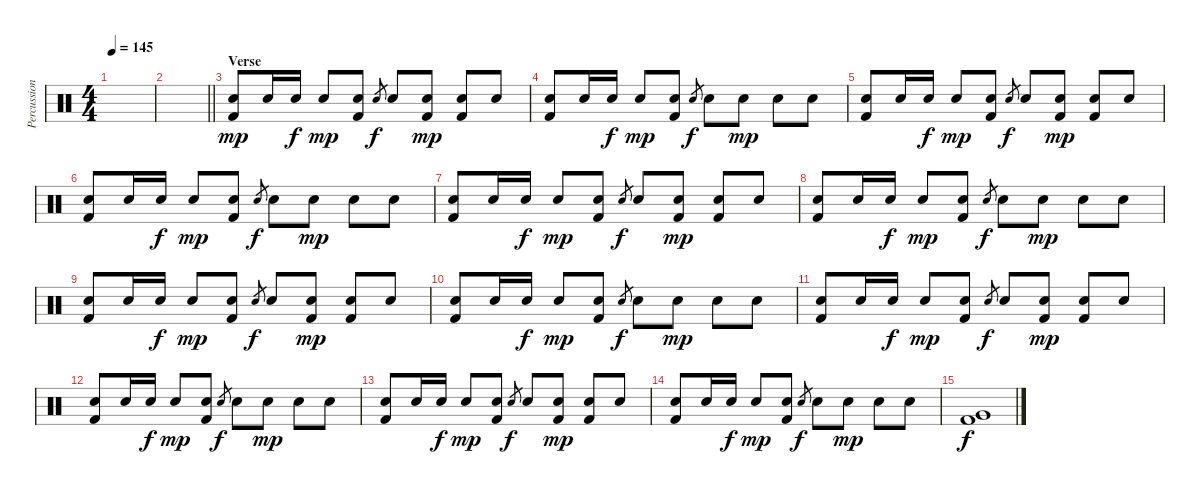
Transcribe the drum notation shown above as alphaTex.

\track ("Percussion" "Percussion") {instrument percussion}
\staff {score}
\articulation defaults
\ts (4 4)
\tempo 145
\clef neutral
\ks c
|
\barLineRight lightlight
|
\section ("" "Verse")
("Electric Snare (hit)" "Kick (hit) 2").8{dy mp} "Electric Snare (hit)".16 "Electric Snare (hit)".16{dy f} "Electric Snare (hit)".8{dy mp} ("Electric Snare (hit)" "Kick (hit) 2").8 "Electric Snare (hit)".8{gr dy f} "Electric Snare (hit)".8 ("Electric Snare (hit)" "Kick (hit) 2").8{dy mp} ("Electric Snare (hit)" "Kick (hit) 2").8 "Electric Snare (hit)".8 |
("Electric Snare (hit)" "Kick (hit) 2").8 "Electric Snare (hit)".16 "Electric Snare (hit)".16{dy f} "Electric Snare (hit)".8{dy mp} ("Electric Snare (hit)" "Kick (hit) 2").8 "Electric Snare (hit)".8{gr dy f} "Electric Snare (hit)".8 "Electric Snare (hit)".8{dy mp} "Electric Snare (hit)".8 "Electric Snare (hit)".8 |
("Electric Snare (hit)" "Kick (hit) 2").8 "Electric Snare (hit)".16 "Electric Snare (hit)".16{dy f} "Electric Snare (hit)".8{dy mp} ("Electric Snare (hit)" "Kick (hit) 2").8 "Electric Snare (hit)".8{gr dy f} "Electric Snare (hit)".8 ("Electric Snare (hit)" "Kick (hit) 2").8{dy mp} ("Electric Snare (hit)" "Kick (hit) 2").8 "Electric Snare (hit)".8 |
("Electric Snare (hit)" "Kick (hit) 2").8 "Electric Snare (hit)".16 "Electric Snare (hit)".16{dy f} "Electric Snare (hit)".8{dy mp} ("Electric Snare (hit)" "Kick (hit) 2").8 "Electric Snare (hit)".8{gr dy f} "Electric Snare (hit)".8 "Electric Snare (hit)".8{dy mp} "Electric Snare (hit)".8 "Electric Snare (hit)".8 |
("Electric Snare (hit)" "Kick (hit) 2").8 "Electric Snare (hit)".16 "Electric Snare (hit)".16{dy f} "Electric Snare (hit)".8{dy mp} ("Electric Snare (hit)" "Kick (hit) 2").8 "Electric Snare (hit)".8{gr dy f} "Electric Snare (hit)".8 ("Electric Snare (hit)" "Kick (hit) 2").8{dy mp} ("Electric Snare (hit)" "Kick (hit) 2").8 "Electric Snare (hit)".8 |
("Electric Snare (hit)" "Kick (hit) 2").8 "Electric Snare (hit)".16 "Electric Snare (hit)".16{dy f} "Electric Snare (hit)".8{dy mp} ("Electric Snare (hit)" "Kick (hit) 2").8 "Electric Snare (hit)".8{gr dy f} "Electric Snare (hit)".8 "Electric Snare (hit)".8{dy mp} "Electric Snare (hit)".8 "Electric Snare (hit)".8 |
("Electric Snare (hit)" "Kick (hit) 2").8 "Electric Snare (hit)".16 "Electric Snare (hit)".16{dy f} "Electric Snare (hit)".8{dy mp} ("Electric Snare (hit)" "Kick (hit) 2").8 "Electric Snare (hit)".8{gr dy f} "Electric Snare (hit)".8 ("Electric Snare (hit)" "Kick (hit) 2").8{dy mp} ("Electric Snare (hit)" "Kick (hit) 2").8 "Electric Snare (hit)".8 |
("Electric Snare (hit)" "Kick (hit) 2").8 "Electric Snare (hit)".16 "Electric Snare (hit)".16{dy f} "Electric Snare (hit)".8{dy mp} ("Electric Snare (hit)" "Kick (hit) 2").8 "Electric Snare (hit)".8{gr dy f} "Electric Snare (hit)".8 "Electric Snare (hit)".8{dy mp} "Electric Snare (hit)".8 "Electric Snare (hit)".8 |
("Electric Snare (hit)" "Kick (hit) 2").8 "Electric Snare (hit)".16 "Electric Snare (hit)".16{dy f} "Electric Snare (hit)".8{dy mp} ("Electric Snare (hit)" "Kick (hit) 2").8 "Electric Snare (hit)".8{gr dy f} "Electric Snare (hit)".8 ("Electric Snare (hit)" "Kick (hit) 2").8{dy mp} ("Electric Snare (hit)" "Kick (hit) 2").8 "Electric Snare (hit)".8 |
("Electric Snare (hit)" "Kick (hit) 2").8 "Electric Snare (hit)".16 "Electric Snare (hit)".16{dy f} "Electric Snare (hit)".8{dy mp} ("Electric Snare (hit)" "Kick (hit) 2").8 "Electric Snare (hit)".8{gr dy f} "Electric Snare (hit)".8 "Electric Snare (hit)".8{dy mp} "Electric Snare (hit)".8 "Electric Snare (hit)".8 |
("Electric Snare (hit)" "Kick (hit) 2").8 "Electric Snare (hit)".16 "Electric Snare (hit)".16{dy f} "Electric Snare (hit)".8{dy mp} ("Electric Snare (hit)" "Kick (hit) 2").8 "Electric Snare (hit)".8{gr dy f} "Electric Snare (hit)".8 ("Electric Snare (hit)" "Kick (hit) 2").8{dy mp} ("Electric Snare (hit)" "Kick (hit) 2").8 "Electric Snare (hit)".8 |
("Electric Snare (hit)" "Kick (hit) 2").8 "Electric Snare (hit)".16 "Electric Snare (hit)".16{dy f} "Electric Snare (hit)".8{dy mp} ("Electric Snare (hit)" "Kick (hit) 2").8 "Electric Snare (hit)".8{gr dy f} "Electric Snare (hit)".8 "Electric Snare (hit)".8{dy mp} "Electric Snare (hit)".8 "Electric Snare (hit)".8 |
("Very Low Tom (hit)" "Kick (hit) 2").1{dy f}
